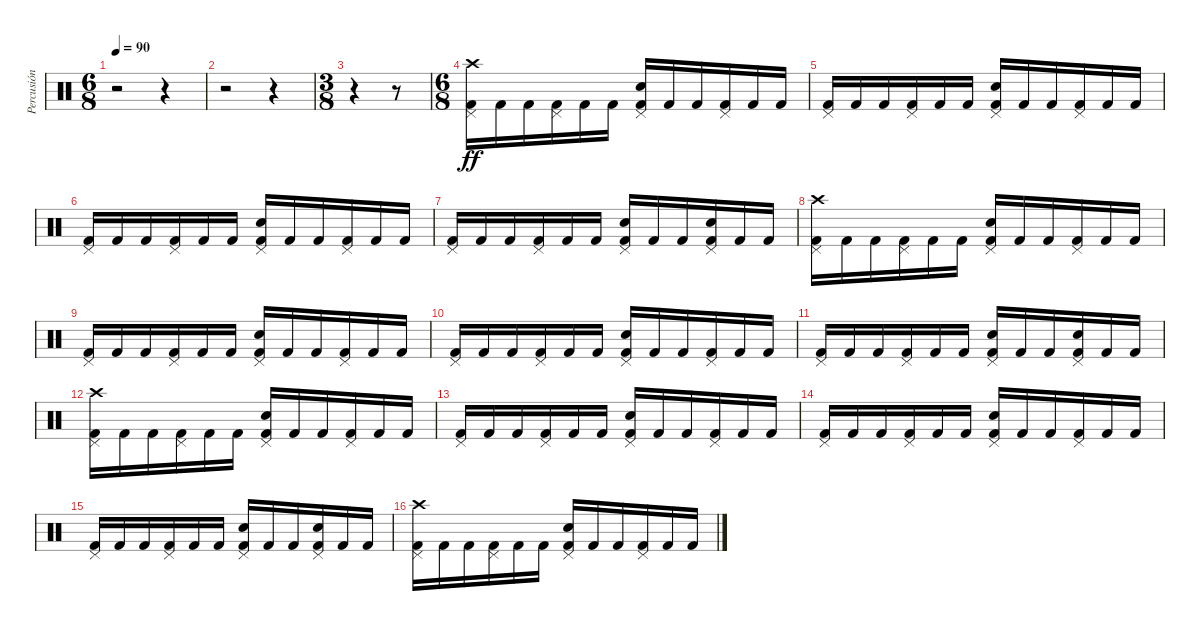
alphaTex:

\track ("Percusión" "Percusión") {instrument percussion}
\staff {score}
\articulation defaults
\ts (6 8)
\tempo 90
\clef neutral
\ks c
r.2{dy ff} r.4 |
r.2 r.4 |
\ts (3 8)
r.4 r.8 |
\ts (6 8)
("Crash high (hit)" "Pedal Hi-Hat (hit)" "Kick (hit) 2").16 "Kick (hit) 2".16 "Kick (hit) 2".16 ("Pedal Hi-Hat (hit)" "Kick (hit) 2").16 "Kick (hit) 2".16 "Kick (hit) 2".16 ("Pedal Hi-Hat (hit)" "Electric Snare (hit)" "Kick (hit) 2").16 "Kick (hit) 2".16 "Kick (hit) 2".16 ("Pedal Hi-Hat (hit)" "Kick (hit) 2").16 "Kick (hit) 2".16 "Kick (hit) 2".16 |
("Pedal Hi-Hat (hit)" "Kick (hit) 2").16 "Kick (hit) 2".16 "Kick (hit) 2".16 ("Pedal Hi-Hat (hit)" "Kick (hit) 2").16 "Kick (hit) 2".16 "Kick (hit) 2".16 ("Pedal Hi-Hat (hit)" "Electric Snare (hit)" "Kick (hit) 2").16 "Kick (hit) 2".16 "Kick (hit) 2".16 ("Pedal Hi-Hat (hit)" "Kick (hit) 2").16 "Kick (hit) 2".16 "Kick (hit) 2".16 |
("Pedal Hi-Hat (hit)" "Kick (hit) 2").16 "Kick (hit) 2".16 "Kick (hit) 2".16 ("Pedal Hi-Hat (hit)" "Kick (hit) 2").16 "Kick (hit) 2".16 "Kick (hit) 2".16 ("Pedal Hi-Hat (hit)" "Electric Snare (hit)" "Kick (hit) 2").16 "Kick (hit) 2".16 "Kick (hit) 2".16 ("Pedal Hi-Hat (hit)" "Kick (hit) 2").16 "Kick (hit) 2".16 "Kick (hit) 2".16 |
("Pedal Hi-Hat (hit)" "Kick (hit) 2").16 "Kick (hit) 2".16 "Kick (hit) 2".16 ("Pedal Hi-Hat (hit)" "Kick (hit) 2").16 "Kick (hit) 2".16 "Kick (hit) 2".16 ("Pedal Hi-Hat (hit)" "Electric Snare (hit)" "Kick (hit) 2").16 "Kick (hit) 2".16 "Kick (hit) 2".16 ("Pedal Hi-Hat (hit)" "Electric Snare (hit)" "Kick (hit) 2").16 "Kick (hit) 2".16 "Kick (hit) 2".16 |
("Crash high (hit)" "Pedal Hi-Hat (hit)" "Kick (hit) 2").16 "Kick (hit) 2".16 "Kick (hit) 2".16 ("Pedal Hi-Hat (hit)" "Kick (hit) 2").16 "Kick (hit) 2".16 "Kick (hit) 2".16 ("Pedal Hi-Hat (hit)" "Electric Snare (hit)" "Kick (hit) 2").16 "Kick (hit) 2".16 "Kick (hit) 2".16 ("Pedal Hi-Hat (hit)" "Kick (hit) 2").16 "Kick (hit) 2".16 "Kick (hit) 2".16 |
("Pedal Hi-Hat (hit)" "Kick (hit) 2").16 "Kick (hit) 2".16 "Kick (hit) 2".16 ("Pedal Hi-Hat (hit)" "Kick (hit) 2").16 "Kick (hit) 2".16 "Kick (hit) 2".16 ("Pedal Hi-Hat (hit)" "Electric Snare (hit)" "Kick (hit) 2").16 "Kick (hit) 2".16 "Kick (hit) 2".16 ("Pedal Hi-Hat (hit)" "Kick (hit) 2").16 "Kick (hit) 2".16 "Kick (hit) 2".16 |
("Pedal Hi-Hat (hit)" "Kick (hit) 2").16 "Kick (hit) 2".16 "Kick (hit) 2".16 ("Pedal Hi-Hat (hit)" "Kick (hit) 2").16 "Kick (hit) 2".16 "Kick (hit) 2".16 ("Pedal Hi-Hat (hit)" "Electric Snare (hit)" "Kick (hit) 2").16 "Kick (hit) 2".16 "Kick (hit) 2".16 ("Pedal Hi-Hat (hit)" "Kick (hit) 2").16 "Kick (hit) 2".16 "Kick (hit) 2".16 |
("Pedal Hi-Hat (hit)" "Kick (hit) 2").16 "Kick (hit) 2".16 "Kick (hit) 2".16 ("Pedal Hi-Hat (hit)" "Kick (hit) 2").16 "Kick (hit) 2".16 "Kick (hit) 2".16 ("Pedal Hi-Hat (hit)" "Electric Snare (hit)" "Kick (hit) 2").16 "Kick (hit) 2".16 "Kick (hit) 2".16 ("Pedal Hi-Hat (hit)" "Electric Snare (hit)" "Kick (hit) 2").16 "Kick (hit) 2".16 "Kick (hit) 2".16 |
("Crash high (hit)" "Pedal Hi-Hat (hit)" "Kick (hit) 2").16 "Kick (hit) 2".16 "Kick (hit) 2".16 ("Pedal Hi-Hat (hit)" "Kick (hit) 2").16 "Kick (hit) 2".16 "Kick (hit) 2".16 ("Pedal Hi-Hat (hit)" "Electric Snare (hit)" "Kick (hit) 2").16 "Kick (hit) 2".16 "Kick (hit) 2".16 ("Pedal Hi-Hat (hit)" "Kick (hit) 2").16 "Kick (hit) 2".16 "Kick (hit) 2".16 |
("Pedal Hi-Hat (hit)" "Kick (hit) 2").16 "Kick (hit) 2".16 "Kick (hit) 2".16 ("Pedal Hi-Hat (hit)" "Kick (hit) 2").16 "Kick (hit) 2".16 "Kick (hit) 2".16 ("Pedal Hi-Hat (hit)" "Electric Snare (hit)" "Kick (hit) 2").16 "Kick (hit) 2".16 "Kick (hit) 2".16 ("Pedal Hi-Hat (hit)" "Kick (hit) 2").16 "Kick (hit) 2".16 "Kick (hit) 2".16 |
("Pedal Hi-Hat (hit)" "Kick (hit) 2").16 "Kick (hit) 2".16 "Kick (hit) 2".16 ("Pedal Hi-Hat (hit)" "Kick (hit) 2").16 "Kick (hit) 2".16 "Kick (hit) 2".16 ("Pedal Hi-Hat (hit)" "Electric Snare (hit)" "Kick (hit) 2").16 "Kick (hit) 2".16 "Kick (hit) 2".16 ("Pedal Hi-Hat (hit)" "Kick (hit) 2").16 "Kick (hit) 2".16 "Kick (hit) 2".16 |
("Pedal Hi-Hat (hit)" "Kick (hit) 2").16 "Kick (hit) 2".16 "Kick (hit) 2".16 ("Pedal Hi-Hat (hit)" "Kick (hit) 2").16 "Kick (hit) 2".16 "Kick (hit) 2".16 ("Pedal Hi-Hat (hit)" "Electric Snare (hit)" "Kick (hit) 2").16 "Kick (hit) 2".16 "Kick (hit) 2".16 ("Pedal Hi-Hat (hit)" "Electric Snare (hit)" "Kick (hit) 2").16 "Kick (hit) 2".16 "Kick (hit) 2".16 |
("Crash high (hit)" "Pedal Hi-Hat (hit)" "Kick (hit) 2").16 "Kick (hit) 2".16 "Kick (hit) 2".16 ("Pedal Hi-Hat (hit)" "Kick (hit) 2").16 "Kick (hit) 2".16 "Kick (hit) 2".16 ("Pedal Hi-Hat (hit)" "Electric Snare (hit)" "Kick (hit) 2").16 "Kick (hit) 2".16 "Kick (hit) 2".16 ("Pedal Hi-Hat (hit)" "Kick (hit) 2").16 "Kick (hit) 2".16 "Kick (hit) 2".16
